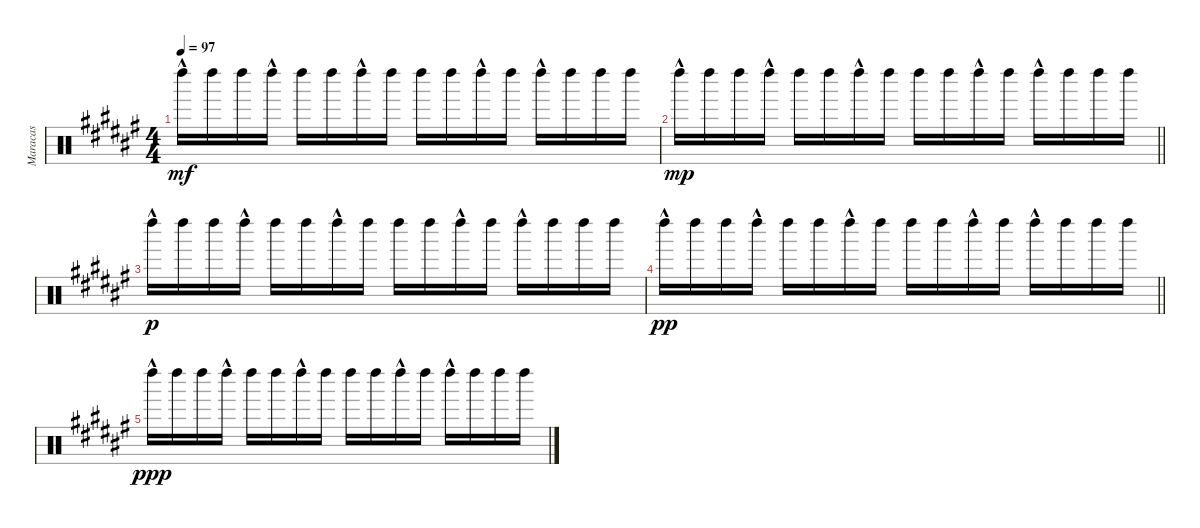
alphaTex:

\track ("Maracas" "Maracas") {instrument percussion}
\staff {score}
\articulation defaults
\ts (4 4)
\tempo 97
\clef neutral
\ks f# "Left Maraca (hit)"{hac}.16{dy mf} "Left Maraca (hit)".16 "Left Maraca (hit)".16 "Left Maraca (hit)"{hac}.16 "Left Maraca (hit)".16 "Left Maraca (hit)".16 "Left Maraca (hit)"{hac}.16 "Left Maraca (hit)".16 "Left Maraca (hit)".16 "Left Maraca (hit)".16 "Left Maraca (hit)"{hac}.16 "Left Maraca (hit)".16 "Left Maraca (hit)"{hac}.16 "Left Maraca (hit)".16 "Left Maraca (hit)".16 "Left Maraca (hit)".16
|
\barLineRight lightlight "Left Maraca (hit)"{hac}.16{dy mp} "Left Maraca (hit)".16 "Left Maraca (hit)".16 "Left Maraca (hit)"{hac}.16 "Left Maraca (hit)".16 "Left Maraca (hit)".16 "Left Maraca (hit)"{hac}.16 "Left Maraca (hit)".16 "Left Maraca (hit)".16 "Left Maraca (hit)".16 "Left Maraca (hit)"{hac}.16 "Left Maraca (hit)".16 "Left Maraca (hit)"{hac}.16 "Left Maraca (hit)".16 "Left Maraca (hit)".16 "Left Maraca (hit)".16
|
"Left Maraca (hit)"{hac}.16{dy p} "Left Maraca (hit)".16 "Left Maraca (hit)".16 "Left Maraca (hit)"{hac}.16 "Left Maraca (hit)".16 "Left Maraca (hit)".16 "Left Maraca (hit)"{hac}.16 "Left Maraca (hit)".16 "Left Maraca (hit)".16 "Left Maraca (hit)".16 "Left Maraca (hit)"{hac}.16 "Left Maraca (hit)".16 "Left Maraca (hit)"{hac}.16 "Left Maraca (hit)".16 "Left Maraca (hit)".16 "Left Maraca (hit)".16 |
\barLineRight lightlight "Left Maraca (hit)"{hac}.16{dy pp} "Left Maraca (hit)".16 "Left Maraca (hit)".16 "Left Maraca (hit)"{hac}.16 "Left Maraca (hit)".16 "Left Maraca (hit)".16 "Left Maraca (hit)"{hac}.16 "Left Maraca (hit)".16 "Left Maraca (hit)".16 "Left Maraca (hit)".16 "Left Maraca (hit)"{hac}.16 "Left Maraca (hit)".16 "Left Maraca (hit)"{hac}.16 "Left Maraca (hit)".16 "Left Maraca (hit)".16 "Left Maraca (hit)".16
|
"Left Maraca (hit)"{hac}.16{dy ppp} "Left Maraca (hit)".16 "Left Maraca (hit)".16 "Left Maraca (hit)"{hac}.16 "Left Maraca (hit)".16 "Left Maraca (hit)".16 "Left Maraca (hit)"{hac}.16 "Left Maraca (hit)".16 "Left Maraca (hit)".16 "Left Maraca (hit)".16 "Left Maraca (hit)"{hac}.16 "Left Maraca (hit)".16 "Left Maraca (hit)"{hac}.16 "Left Maraca (hit)".16 "Left Maraca (hit)".16 "Left Maraca (hit)".16
